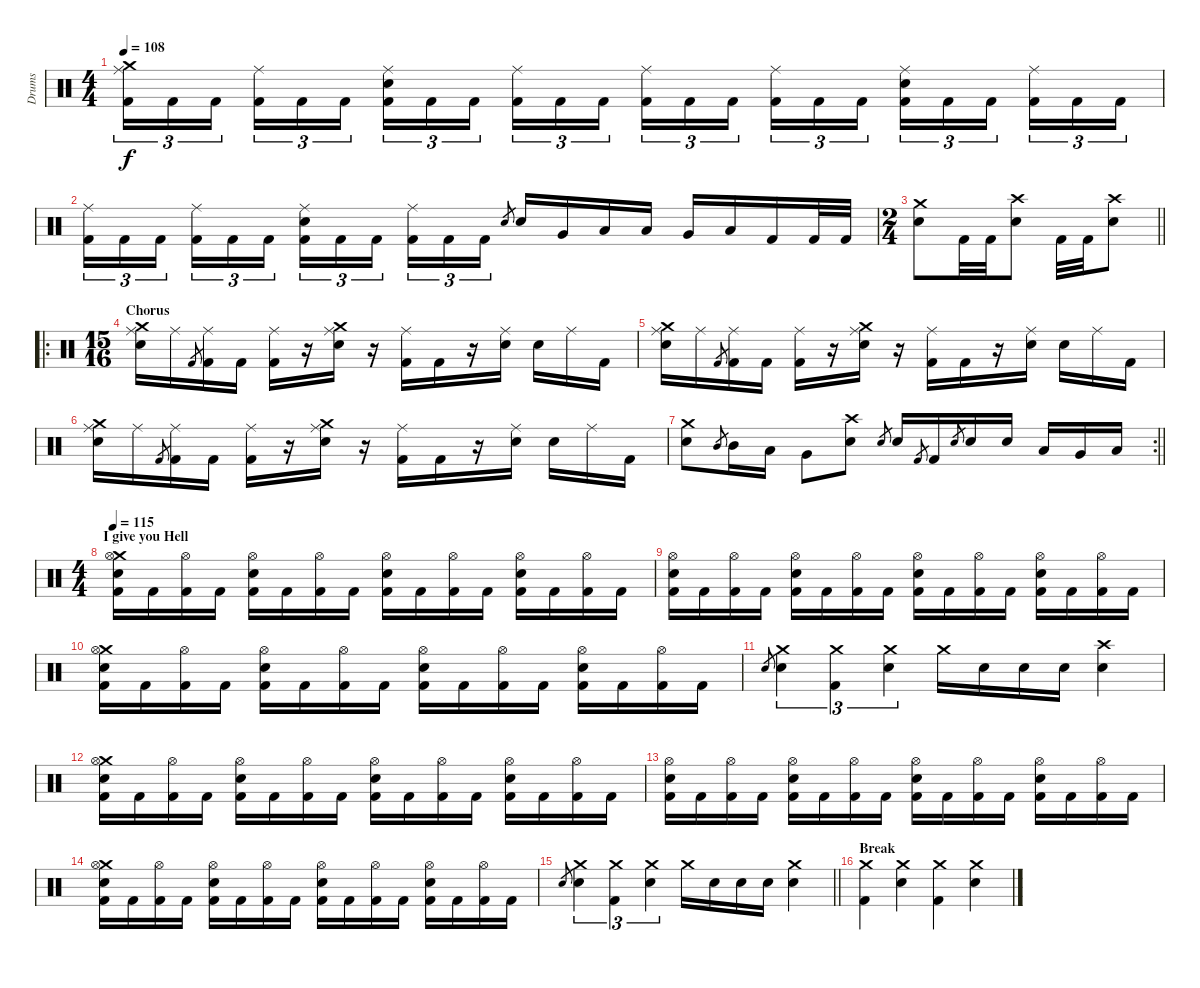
\track ("Drums" "Drums") {instrument percussion}
\staff {score}
\articulation defaults
\ts (4 4)
\tempo 108
\clef neutral
\ks c
("Crash medium (hit)" "Ride (middle)" "Kick (hit) 2").16{tu (3 2) dy f} "Kick (hit) 2".16{tu (3 2)} "Kick (hit) 2".16{tu (3 2) beam splitsecondary} ("Ride (middle)" "Kick (hit) 2").16{tu (3 2)} "Kick (hit) 2".16{tu (3 2)} "Kick (hit) 2".16{tu (3 2)} ("Ride (middle)" "Electric Snare (hit)" "Kick (hit) 2").16{tu (3 2)} "Kick (hit) 2".16{tu (3 2)} "Kick (hit) 2".16{tu (3 2) beam splitsecondary} ("Ride (middle)" "Kick (hit) 2").16{tu (3 2)} "Kick (hit) 2".16{tu (3 2)} "Kick (hit) 2".16{tu (3 2)} ("Ride (middle)" "Kick (hit) 2").16{tu (3 2)} "Kick (hit) 2".16{tu (3 2)} "Kick (hit) 2".16{tu (3 2) beam splitsecondary} ("Ride (middle)" "Kick (hit) 2").16{tu (3 2)} "Kick (hit) 2".16{tu (3 2)} "Kick (hit) 2".16{tu (3 2)} ("Ride (middle)" "Electric Snare (hit)" "Kick (hit) 2").16{tu (3 2)} "Kick (hit) 2".16{tu (3 2)} "Kick (hit) 2".16{tu (3 2) beam splitsecondary} ("Ride (middle)" "Kick (hit) 2").16{tu (3 2)} "Kick (hit) 2".16{tu (3 2)} "Kick (hit) 2".16{tu (3 2)} |
("Ride (middle)" "Kick (hit) 2").16{tu (3 2)} "Kick (hit) 2".16{tu (3 2)} "Kick (hit) 2".16{tu (3 2) beam splitsecondary} ("Ride (middle)" "Kick (hit) 2").16{tu (3 2)} "Kick (hit) 2".16{tu (3 2)} "Kick (hit) 2".16{tu (3 2)} ("Ride (middle)" "Electric Snare (hit)" "Kick (hit) 2").16{tu (3 2)} "Kick (hit) 2".16{tu (3 2)} "Kick (hit) 2".16{tu (3 2) beam splitsecondary} ("Ride (middle)" "Kick (hit) 2").16{tu (3 2)} "Kick (hit) 2".16{tu (3 2)} "Kick (hit) 2".16{tu (3 2)} "Electric Snare (hit)".8{gr} "Electric Snare (hit)".16 "Very Low Tom (hit)".16 "Low Floor Tom (hit)".16 "Low Tom (hit)".16 "Very Low Tom (hit)".16 "Low Floor Tom (hit)".16 "Kick (hit) 2".16 "Kick (hit) 2".32 "Kick (hit) 2".32 |
\ts (2 4)
\barLineRight lightlight
("Crash medium (hit)" "Electric Snare (hit)").8 "Kick (hit) 2".32 "Kick (hit) 2".32 ("Crash high (hit)" "Electric Snare (hit)").8 "Kick (hit) 2".32 "Kick (hit) 2".32 ("Crash high (hit)" "Electric Snare (hit)").8 |
\ro
\ts (15 16)
\section ("" "Chorus")
("Crash medium (hit)" "Ride (middle)" "Electric Snare (hit)").16 "Ride (middle)".16 "Kick (hit) 2".8{gr} ("Ride (middle)" "Kick (hit) 2").16 "Kick (hit) 2".16 ("Ride (middle)" "Kick (hit) 2").16 r.16 ("Crash medium (hit)" "Ride (middle)" "Electric Snare (hit)").16 r.16 ("Ride (middle)" "Kick (hit) 2").16 "Kick (hit) 2".16 r.16 ("Ride (middle)" "Electric Snare (hit)").16 "Electric Snare (hit)".16 "Ride (middle)".16 "Kick (hit) 2".16 |
("Crash medium (hit)" "Ride (middle)" "Electric Snare (hit)").16 "Ride (middle)".16 "Kick (hit) 2".8{gr} ("Ride (middle)" "Kick (hit) 2").16 "Kick (hit) 2".16 ("Ride (middle)" "Kick (hit) 2").16 r.16 ("Crash medium (hit)" "Ride (middle)" "Electric Snare (hit)").16 r.16 ("Ride (middle)" "Kick (hit) 2").16 "Kick (hit) 2".16 r.16 ("Ride (middle)" "Electric Snare (hit)").16 "Electric Snare (hit)".16 "Ride (middle)".16 "Kick (hit) 2".16 |
("Crash medium (hit)" "Ride (middle)" "Electric Snare (hit)").16 "Ride (middle)".16 "Kick (hit) 2".8{gr} ("Ride (middle)" "Kick (hit) 2").16 "Kick (hit) 2".16 ("Ride (middle)" "Kick (hit) 2").16 r.16 ("Crash medium (hit)" "Ride (middle)" "Electric Snare (hit)").16 r.16 ("Ride (middle)" "Kick (hit) 2").16 "Kick (hit) 2".16 r.16 ("Ride (middle)" "Electric Snare (hit)").16 "Electric Snare (hit)".16 "Ride (middle)".16 "Kick (hit) 2".16 |
\rc 2
\barLineRight lightlight
("Crash medium (hit)" "Electric Snare (hit)").8 "Mid Tom (hit)".8{gr} "Mid Tom (hit)".16 "Low Tom (hit)".16 "Very Low Tom (hit)".8 ("Crash high (hit)" "Electric Snare (hit)").8 "Electric Snare (hit)".8{gr} "Electric Snare (hit)".16 "Kick (hit) 2".8{gr} "Kick (hit) 2".16 "Electric Snare (hit)".8{gr} "Electric Snare (hit)".16 "Electric Snare (hit)".16 "Low Tom (hit)".16 "Very Low Tom (hit)".16 "Low Floor Tom (hit)".16 |
\ts (4 4)
\section ("" "I give you Hell")
\tempo 115
("Crash medium (hit)" "Hi-Hat (open)" "Electric Snare (hit)" "Kick (hit) 2").16 "Kick (hit) 2".16 ("Hi-Hat (open)" "Kick (hit) 2").16 "Kick (hit) 2".16 ("Hi-Hat (open)" "Electric Snare (hit)" "Kick (hit) 2").16 "Kick (hit) 2".16 ("Hi-Hat (open)" "Kick (hit) 2").16 "Kick (hit) 2".16 ("Hi-Hat (open)" "Electric Snare (hit)" "Kick (hit) 2").16 "Kick (hit) 2".16 ("Hi-Hat (open)" "Kick (hit) 2").16 "Kick (hit) 2".16 ("Hi-Hat (open)" "Electric Snare (hit)" "Kick (hit) 2").16 "Kick (hit) 2".16 ("Hi-Hat (open)" "Kick (hit) 2").16 "Kick (hit) 2".16 |
("Hi-Hat (open)" "Electric Snare (hit)" "Kick (hit) 2").16 "Kick (hit) 2".16 ("Hi-Hat (open)" "Kick (hit) 2").16 "Kick (hit) 2".16 ("Hi-Hat (open)" "Electric Snare (hit)" "Kick (hit) 2").16 "Kick (hit) 2".16 ("Hi-Hat (open)" "Kick (hit) 2").16 "Kick (hit) 2".16 ("Hi-Hat (open)" "Electric Snare (hit)" "Kick (hit) 2").16 "Kick (hit) 2".16 ("Hi-Hat (open)" "Kick (hit) 2").16 "Kick (hit) 2".16 ("Hi-Hat (open)" "Electric Snare (hit)" "Kick (hit) 2").16 "Kick (hit) 2".16 ("Hi-Hat (open)" "Kick (hit) 2").16 "Kick (hit) 2".16 |
("Crash medium (hit)" "Hi-Hat (open)" "Electric Snare (hit)" "Kick (hit) 2").16 "Kick (hit) 2".16 ("Hi-Hat (open)" "Kick (hit) 2").16 "Kick (hit) 2".16 ("Hi-Hat (open)" "Electric Snare (hit)" "Kick (hit) 2").16 "Kick (hit) 2".16 ("Hi-Hat (open)" "Kick (hit) 2").16 "Kick (hit) 2".16 ("Hi-Hat (open)" "Electric Snare (hit)" "Kick (hit) 2").16 "Kick (hit) 2".16 ("Hi-Hat (open)" "Kick (hit) 2").16 "Kick (hit) 2".16 ("Hi-Hat (open)" "Electric Snare (hit)" "Kick (hit) 2").16 "Kick (hit) 2".16 ("Hi-Hat (open)" "Kick (hit) 2").16 "Kick (hit) 2".16 |
"Electric Snare (hit)".8{gr} ("Crash medium (hit)" "Electric Snare (hit)").4{tu (3 2)} ("Crash medium (hit)" "Kick (hit) 2").4{tu (3 2)} ("Crash medium (hit)" "Electric Snare (hit)").4{tu (3 2)} "Crash medium (hit)".16 "Electric Snare (hit)".16 "Electric Snare (hit)".16 "Electric Snare (hit)".16 ("Crash high (hit)" "Electric Snare (hit)").4 |
("Crash medium (hit)" "Hi-Hat (open)" "Electric Snare (hit)" "Kick (hit) 2").16 "Kick (hit) 2".16 ("Hi-Hat (open)" "Kick (hit) 2").16 "Kick (hit) 2".16 ("Hi-Hat (open)" "Electric Snare (hit)" "Kick (hit) 2").16 "Kick (hit) 2".16 ("Hi-Hat (open)" "Kick (hit) 2").16 "Kick (hit) 2".16 ("Hi-Hat (open)" "Electric Snare (hit)" "Kick (hit) 2").16 "Kick (hit) 2".16 ("Hi-Hat (open)" "Kick (hit) 2").16 "Kick (hit) 2".16 ("Hi-Hat (open)" "Electric Snare (hit)" "Kick (hit) 2").16 "Kick (hit) 2".16 ("Hi-Hat (open)" "Kick (hit) 2").16 "Kick (hit) 2".16 |
("Hi-Hat (open)" "Electric Snare (hit)" "Kick (hit) 2").16 "Kick (hit) 2".16 ("Hi-Hat (open)" "Kick (hit) 2").16 "Kick (hit) 2".16 ("Hi-Hat (open)" "Electric Snare (hit)" "Kick (hit) 2").16 "Kick (hit) 2".16 ("Hi-Hat (open)" "Kick (hit) 2").16 "Kick (hit) 2".16 ("Hi-Hat (open)" "Electric Snare (hit)" "Kick (hit) 2").16 "Kick (hit) 2".16 ("Hi-Hat (open)" "Kick (hit) 2").16 "Kick (hit) 2".16 ("Hi-Hat (open)" "Electric Snare (hit)" "Kick (hit) 2").16 "Kick (hit) 2".16 ("Hi-Hat (open)" "Kick (hit) 2").16 "Kick (hit) 2".16 |
("Crash medium (hit)" "Hi-Hat (open)" "Electric Snare (hit)" "Kick (hit) 2").16 "Kick (hit) 2".16 ("Hi-Hat (open)" "Kick (hit) 2").16 "Kick (hit) 2".16 ("Hi-Hat (open)" "Electric Snare (hit)" "Kick (hit) 2").16 "Kick (hit) 2".16 ("Hi-Hat (open)" "Kick (hit) 2").16 "Kick (hit) 2".16 ("Hi-Hat (open)" "Electric Snare (hit)" "Kick (hit) 2").16 "Kick (hit) 2".16 ("Hi-Hat (open)" "Kick (hit) 2").16 "Kick (hit) 2".16 ("Hi-Hat (open)" "Electric Snare (hit)" "Kick (hit) 2").16 "Kick (hit) 2".16 ("Hi-Hat (open)" "Kick (hit) 2").16 "Kick (hit) 2".16 |
\barLineRight lightlight "Electric Snare (hit)".8{gr}
("Crash medium (hit)" "Electric Snare (hit)").4{tu (3 2)} ("Crash medium (hit)" "Kick (hit) 2").4{tu (3 2)} ("Crash medium (hit)" "Electric Snare (hit)").4{tu (3 2)} "Crash medium (hit)".16 "Electric Snare (hit)".16 "Electric Snare (hit)".16 "Electric Snare (hit)".16 ("Crash medium (hit)" "Electric Snare (hit)").4 |
\section ("" "Break")
("Crash medium (hit)" "Kick (hit) 2").4 ("Crash medium (hit)" "Electric Snare (hit)").4 ("Crash medium (hit)" "Kick (hit) 2").4 ("Crash medium (hit)" "Electric Snare (hit)").4
